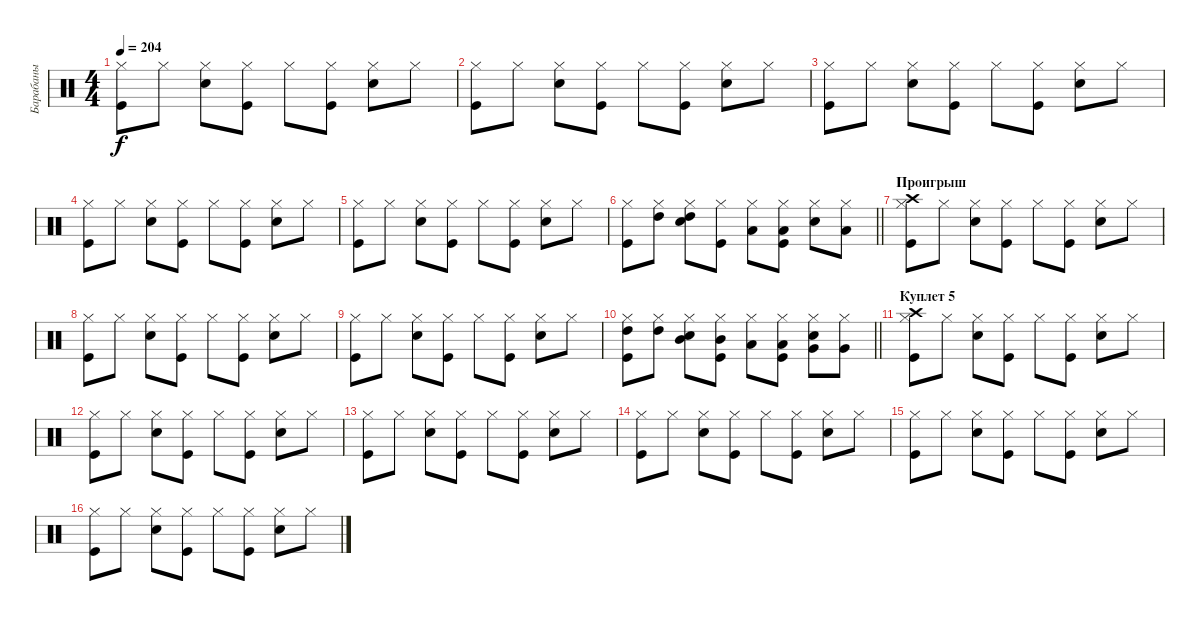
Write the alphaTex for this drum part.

\track ("Барабаны" "Барабаны") {instrument percussion}
\staff {score}
\articulation defaults
\ts (4 4)
\tempo 204
\clef neutral
\ks c
("Kick (hit)" "Hi-Hat (closed)").8{dy f} "Hi-Hat (closed)".8 ("Snare (hit) 2" "Hi-Hat (closed)").8 ("Kick (hit)" "Hi-Hat (closed)").8 "Hi-Hat (closed)".8 ("Kick (hit)" "Hi-Hat (closed)").8 ("Snare (hit) 2" "Hi-Hat (closed)").8 "Hi-Hat (closed)".8 |
("Kick (hit)" "Hi-Hat (closed)").8 "Hi-Hat (closed)".8 ("Snare (hit) 2" "Hi-Hat (closed)").8 ("Kick (hit)" "Hi-Hat (closed)").8 "Hi-Hat (closed)".8 ("Kick (hit)" "Hi-Hat (closed)").8 ("Snare (hit) 2" "Hi-Hat (closed)").8 "Hi-Hat (closed)".8 |
("Kick (hit)" "Hi-Hat (closed)").8 "Hi-Hat (closed)".8 ("Snare (hit) 2" "Hi-Hat (closed)").8 ("Kick (hit)" "Hi-Hat (closed)").8 "Hi-Hat (closed)".8 ("Kick (hit)" "Hi-Hat (closed)").8 ("Snare (hit) 2" "Hi-Hat (closed)").8 "Hi-Hat (closed)".8 |
("Kick (hit)" "Hi-Hat (closed)").8 "Hi-Hat (closed)".8 ("Snare (hit) 2" "Hi-Hat (closed)").8 ("Kick (hit)" "Hi-Hat (closed)").8 "Hi-Hat (closed)".8 ("Kick (hit)" "Hi-Hat (closed)").8 ("Snare (hit) 2" "Hi-Hat (closed)").8 "Hi-Hat (closed)".8 |
("Kick (hit)" "Hi-Hat (closed)").8 "Hi-Hat (closed)".8 ("Snare (hit) 2" "Hi-Hat (closed)").8 ("Kick (hit)" "Hi-Hat (closed)").8 "Hi-Hat (closed)".8 ("Kick (hit)" "Hi-Hat (closed)").8 ("Snare (hit) 2" "Hi-Hat (closed)").8 "Hi-Hat (closed)".8 |
\barLineRight lightlight
("Kick (hit)" "Hi-Hat (closed)").8 ("Hi-Hat (closed)" "High Tom (hit)").8 ("Snare (hit) 2" "Hi-Hat (closed)" "High Tom (hit)").8 ("Kick (hit)" "Hi-Hat (closed)").8 ("Hi-Hat (closed)" "Low Tom (hit)").8 ("Kick (hit)" "Hi-Hat (closed)" "Low Tom (hit)").8 ("Snare (hit) 2" "Hi-Hat (closed)").8 ("Hi-Hat (closed)" "Low Tom (hit)").8 |
\section ("" "Проигрыш")
("Kick (hit)" "Hi-Hat (closed)" "Crash high (hit)").8 "Hi-Hat (closed)".8 ("Snare (hit) 2" "Hi-Hat (closed)").8 ("Kick (hit)" "Hi-Hat (closed)").8 "Hi-Hat (closed)".8 ("Kick (hit)" "Hi-Hat (closed)").8 ("Snare (hit) 2" "Hi-Hat (closed)").8 "Hi-Hat (closed)".8 |
("Kick (hit)" "Hi-Hat (closed)").8 "Hi-Hat (closed)".8 ("Snare (hit) 2" "Hi-Hat (closed)").8 ("Kick (hit)" "Hi-Hat (closed)").8 "Hi-Hat (closed)".8 ("Kick (hit)" "Hi-Hat (closed)").8 ("Snare (hit) 2" "Hi-Hat (closed)").8 "Hi-Hat (closed)".8 |
("Kick (hit)" "Hi-Hat (closed)").8 "Hi-Hat (closed)".8 ("Snare (hit) 2" "Hi-Hat (closed)").8 ("Kick (hit)" "Hi-Hat (closed)").8 "Hi-Hat (closed)".8 ("Kick (hit)" "Hi-Hat (closed)").8 ("Snare (hit) 2" "Hi-Hat (closed)").8 "Hi-Hat (closed)".8 |
\barLineRight lightlight
("Kick (hit)" "Hi-Hat (closed)" "High Tom (hit)").8 ("Hi-Hat (closed)" "High Tom (hit)").8 ("Snare (hit) 2" "Hi-Hat (closed)" "Mid Tom (hit)").8 ("Kick (hit)" "Hi-Hat (closed)" "Mid Tom (hit)").8 ("Hi-Hat (closed)" "Low Tom (hit)").8 ("Kick (hit)" "Hi-Hat (closed)" "Low Tom (hit)").8 ("Snare (hit) 2" "Hi-Hat (closed)" "Very Low Tom (hit)").8 ("Hi-Hat (closed)" "Very Low Tom (hit)").8 |
\section ("" "Куплет 5")
("Kick (hit)" "Hi-Hat (closed)" "Crash high (hit)").8 "Hi-Hat (closed)".8 ("Snare (hit) 2" "Hi-Hat (closed)").8 ("Kick (hit)" "Hi-Hat (closed)").8 "Hi-Hat (closed)".8 ("Kick (hit)" "Hi-Hat (closed)").8 ("Snare (hit) 2" "Hi-Hat (closed)").8 "Hi-Hat (closed)".8 |
("Kick (hit)" "Hi-Hat (closed)").8 "Hi-Hat (closed)".8 ("Snare (hit) 2" "Hi-Hat (closed)").8 ("Kick (hit)" "Hi-Hat (closed)").8 "Hi-Hat (closed)".8 ("Kick (hit)" "Hi-Hat (closed)").8 ("Snare (hit) 2" "Hi-Hat (closed)").8 "Hi-Hat (closed)".8 |
("Kick (hit)" "Hi-Hat (closed)").8 "Hi-Hat (closed)".8 ("Snare (hit) 2" "Hi-Hat (closed)").8 ("Kick (hit)" "Hi-Hat (closed)").8 "Hi-Hat (closed)".8 ("Kick (hit)" "Hi-Hat (closed)").8 ("Snare (hit) 2" "Hi-Hat (closed)").8 "Hi-Hat (closed)".8 |
("Kick (hit)" "Hi-Hat (closed)").8 "Hi-Hat (closed)".8 ("Snare (hit) 2" "Hi-Hat (closed)").8 ("Kick (hit)" "Hi-Hat (closed)").8 "Hi-Hat (closed)".8 ("Kick (hit)" "Hi-Hat (closed)").8 ("Snare (hit) 2" "Hi-Hat (closed)").8 "Hi-Hat (closed)".8 |
("Kick (hit)" "Hi-Hat (closed)").8 "Hi-Hat (closed)".8 ("Snare (hit) 2" "Hi-Hat (closed)").8 ("Kick (hit)" "Hi-Hat (closed)").8 "Hi-Hat (closed)".8 ("Kick (hit)" "Hi-Hat (closed)").8 ("Snare (hit) 2" "Hi-Hat (closed)").8 "Hi-Hat (closed)".8 |
("Kick (hit)" "Hi-Hat (closed)").8 "Hi-Hat (closed)".8 ("Snare (hit) 2" "Hi-Hat (closed)").8 ("Kick (hit)" "Hi-Hat (closed)").8 "Hi-Hat (closed)".8 ("Kick (hit)" "Hi-Hat (closed)").8 ("Snare (hit) 2" "Hi-Hat (closed)").8 "Hi-Hat (closed)".8
